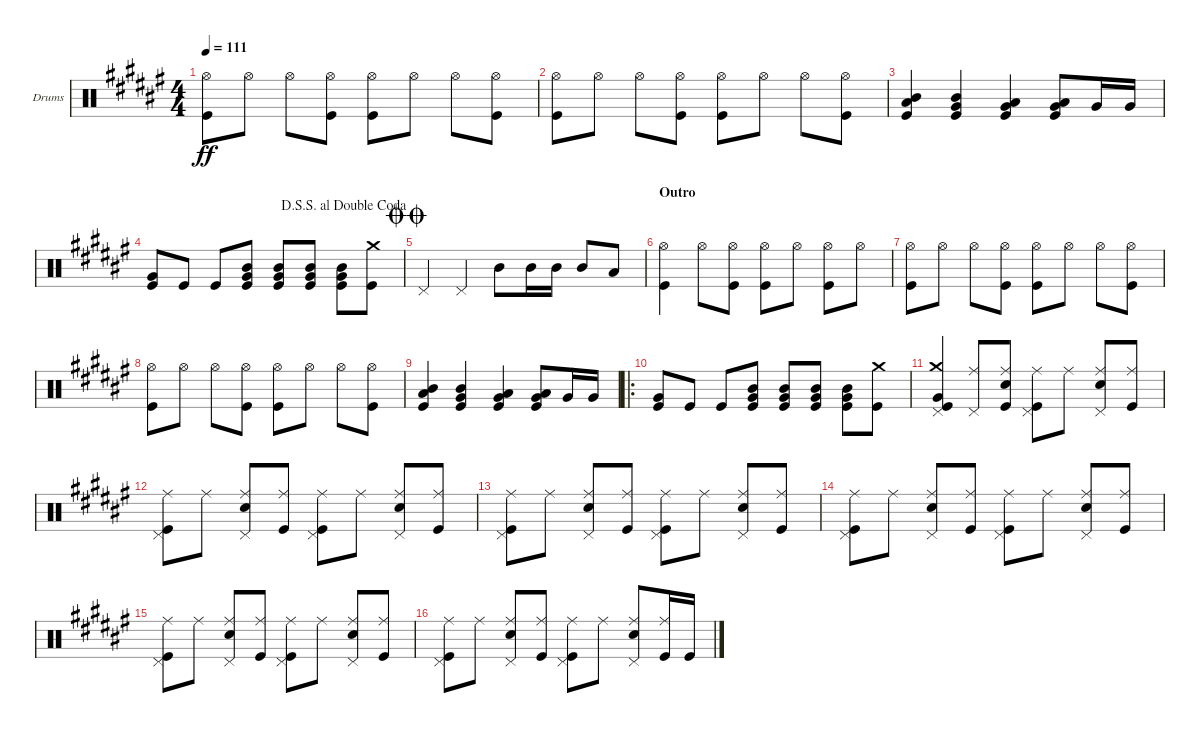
\bracketExtendMode groupsimilarinstruments
\useSystemSignSeparator
\multiTrackTrackNamePolicy allsystems
\firstSystemTrackNameOrientation horizontal
\otherSystemsTrackNameOrientation horizontal
\track ("Drums" "Drums") {instrument percussion}
\staff {score}
\articulation defaults
\ts (4 4)
\tempo 111
\clef neutral
\ks f#
("Hi-Hat (open)" "Kick (hit)").8{dy ff} "Hi-Hat (open)".8 "Hi-Hat (open)".8 ("Kick (hit)" "Hi-Hat (open)").8 ("Hi-Hat (open)" "Kick (hit)").8 "Hi-Hat (open)".8 "Hi-Hat (open)".8 ("Hi-Hat (open)" "Kick (hit)").8 |
("Kick (hit)" "Hi-Hat (open)").8 "Hi-Hat (open)".8 "Hi-Hat (open)".8 ("Kick (hit)" "Hi-Hat (open)").8 ("Hi-Hat (open)" "Kick (hit)").8 "Hi-Hat (open)".8 "Hi-Hat (open)".8 ("Kick (hit)" "Hi-Hat (open)").8 |
("Mid Tom (hit)" "Kick (hit)" "Low Tom (hit)").4 ("Kick (hit)" "Very Low Tom (hit)" "Mid Tom (hit)").4 ("Very Low Tom (hit)" "Kick (hit)" "Low Tom (hit)").4 ("Kick (hit)" "Very Low Tom (hit)" "Low Tom (hit)").8 "Very Low Tom (hit)".16 "Very Low Tom (hit)".16 |
\jump dalsegnosegnoaldoublecoda
("Kick (hit)" "Very Low Tom (hit)").8 "Kick (hit)".8 "Kick (hit)".8 ("Very Low Tom (hit)" "Mid Tom (hit)" "Kick (hit)").8 ("Very Low Tom (hit)" "Mid Tom (hit)" "Kick (hit)").8 ("Very Low Tom (hit)" "Mid Tom (hit)" "Kick (hit)").8 ("Very Low Tom (hit)" "Mid Tom (hit)" "Kick (hit)").8 ("Crash medium (hit)" "Kick (hit)").8 |
\jump doublecoda "Pedal Hi-Hat (hit)".4 "Pedal Hi-Hat (hit)".4 "Mid Tom (hit)".8 "Mid Tom (hit)".16 "Mid Tom (hit)".16 "Mid Tom (hit)".8 "Low Tom (hit)".8
|
\section ("" "Outro")
("Kick (hit)" "Hi-Hat (open)").4 "Hi-Hat (open)".8 ("Hi-Hat (open)" "Kick (hit)").8 ("Hi-Hat (open)" "Kick (hit)").8 "Hi-Hat (open)".8 ("Hi-Hat (open)" "Kick (hit)").8 "Hi-Hat (open)".8 |
("Hi-Hat (open)" "Kick (hit)").8 "Hi-Hat (open)".8 "Hi-Hat (open)".8 ("Kick (hit)" "Hi-Hat (open)").8 ("Hi-Hat (open)" "Kick (hit)").8 "Hi-Hat (open)".8 "Hi-Hat (open)".8 ("Hi-Hat (open)" "Kick (hit)").8 |
("Kick (hit)" "Hi-Hat (open)").8 "Hi-Hat (open)".8 "Hi-Hat (open)".8 ("Kick (hit)" "Hi-Hat (open)").8 ("Hi-Hat (open)" "Kick (hit)").8 "Hi-Hat (open)".8 "Hi-Hat (open)".8 ("Kick (hit)" "Hi-Hat (open)").8 |
("Mid Tom (hit)" "Kick (hit)" "Low Tom (hit)").4 ("Kick (hit)" "Very Low Tom (hit)" "Mid Tom (hit)").4 ("Very Low Tom (hit)" "Kick (hit)" "Low Tom (hit)").4 ("Kick (hit)" "Very Low Tom (hit)" "Low Tom (hit)").8 "Very Low Tom (hit)".16 "Very Low Tom (hit)".16 |
\ro
("Kick (hit)" "Very Low Tom (hit)").8 "Kick (hit)".8 "Kick (hit)".8 ("Very Low Tom (hit)" "Mid Tom (hit)" "Kick (hit)").8 ("Very Low Tom (hit)" "Mid Tom (hit)" "Kick (hit)").8 ("Very Low Tom (hit)" "Mid Tom (hit)" "Kick (hit)").8 ("Very Low Tom (hit)" "Mid Tom (hit)" "Kick (hit)").8 ("Crash medium (hit)" "Kick (hit)").8 |
("Very Low Tom (hit)" "Kick (hit)" "Crash medium (hit)" "Pedal Hi-Hat (hit)").4 ("Ride (middle)" "Pedal Hi-Hat (hit)").8 ("Snare (hit) 2" "Kick (hit)" "Ride (middle)").8 ("Kick (hit)" "Ride (middle)" "Pedal Hi-Hat (hit)").8 "Ride (middle)".8 ("Snare (hit) 2" "Ride (middle)" "Pedal Hi-Hat (hit)").8 ("Kick (hit)" "Ride (middle)").8 |
("Kick (hit)" "Ride (middle)" "Pedal Hi-Hat (hit)").8 "Ride (middle)".8 ("Snare (hit) 2" "Ride (middle)" "Pedal Hi-Hat (hit)").8 ("Kick (hit)" "Ride (middle)").8 ("Kick (hit)" "Ride (middle)" "Pedal Hi-Hat (hit)").8 "Ride (middle)".8 ("Snare (hit) 2" "Ride (middle)" "Pedal Hi-Hat (hit)").8 ("Kick (hit)" "Ride (middle)").8 |
("Kick (hit)" "Ride (middle)" "Pedal Hi-Hat (hit)").8 "Ride (middle)".8 ("Snare (hit) 2" "Ride (middle)" "Pedal Hi-Hat (hit)").8 ("Kick (hit)" "Ride (middle)").8 ("Kick (hit)" "Ride (middle)" "Pedal Hi-Hat (hit)").8 "Ride (middle)".8 ("Snare (hit) 2" "Ride (middle)" "Pedal Hi-Hat (hit)").8 ("Kick (hit)" "Ride (middle)").8 |
("Kick (hit)" "Ride (middle)" "Pedal Hi-Hat (hit)").8 "Ride (middle)".8 ("Snare (hit) 2" "Ride (middle)" "Pedal Hi-Hat (hit)").8 ("Kick (hit)" "Ride (middle)").8 ("Kick (hit)" "Ride (middle)" "Pedal Hi-Hat (hit)").8 "Ride (middle)".8 ("Snare (hit) 2" "Ride (middle)" "Pedal Hi-Hat (hit)").8 ("Kick (hit)" "Ride (middle)").8 |
("Kick (hit)" "Ride (middle)" "Pedal Hi-Hat (hit)").8 "Ride (middle)".8 ("Snare (hit) 2" "Ride (middle)" "Pedal Hi-Hat (hit)").8 ("Kick (hit)" "Ride (middle)").8 ("Kick (hit)" "Ride (middle)" "Pedal Hi-Hat (hit)").8 "Ride (middle)".8 ("Snare (hit) 2" "Ride (middle)" "Pedal Hi-Hat (hit)").8 ("Kick (hit)" "Ride (middle)").8 |
("Kick (hit)" "Ride (middle)" "Pedal Hi-Hat (hit)").8 "Ride (middle)".8 ("Snare (hit) 2" "Ride (middle)" "Pedal Hi-Hat (hit)").8 ("Kick (hit)" "Ride (middle)").8 ("Kick (hit)" "Ride (middle)" "Pedal Hi-Hat (hit)").8 "Ride (middle)".8 ("Snare (hit) 2" "Ride (middle)" "Pedal Hi-Hat (hit)").8 ("Kick (hit)" "Ride (middle)").16 "Kick (hit)".16
